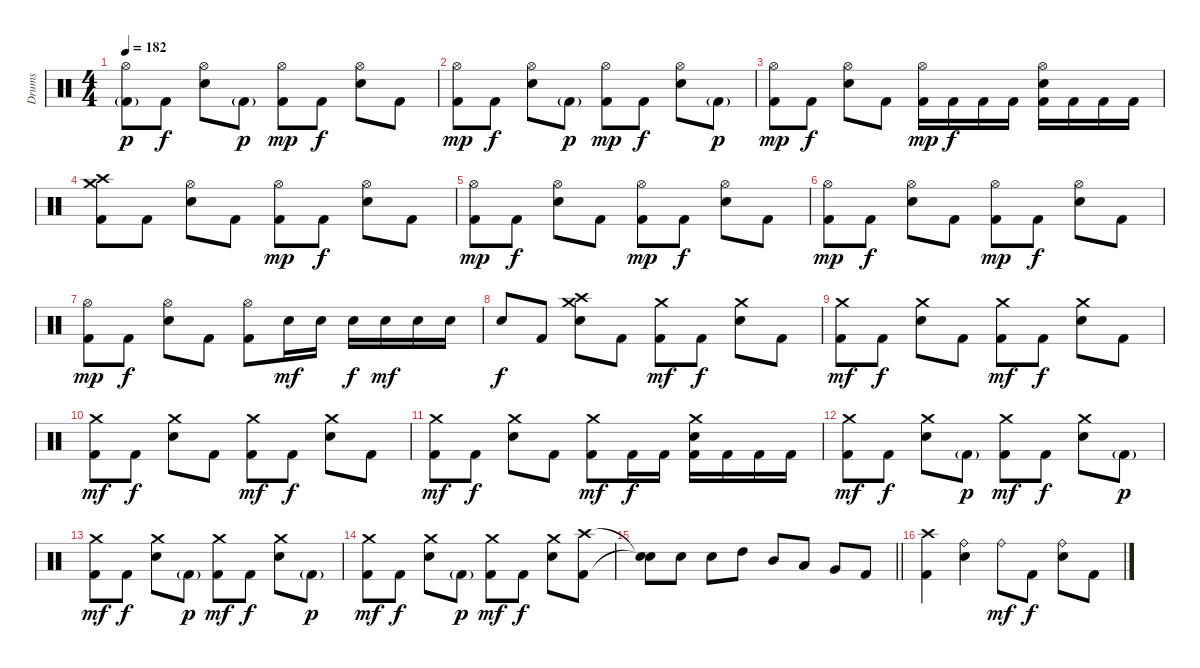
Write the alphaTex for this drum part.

\track ("Drums" "Drums") {instrument percussion}
\staff {score}
\articulation defaults
\ts (4 4)
\tempo 182
\clef neutral
\ks c
("Hi-Hat (open)" "Kick (hit) 2"{g}).8{dy p} "Kick (hit) 2".8{dy f} ("Hi-Hat (open)" "Electric Snare (hit)").8 "Kick (hit) 2"{g}.8{dy p} ("Hi-Hat (open)" "Kick (hit) 2").8{dy mp} "Kick (hit) 2".8{dy f} ("Hi-Hat (open)" "Electric Snare (hit)").8 "Kick (hit) 2".8 |
("Hi-Hat (open)" "Kick (hit) 2").8{dy mp} "Kick (hit) 2".8{dy f} ("Hi-Hat (open)" "Electric Snare (hit)").8 "Kick (hit) 2"{g}.8{dy p} ("Hi-Hat (open)" "Kick (hit) 2").8{dy mp} "Kick (hit) 2".8{dy f} ("Hi-Hat (open)" "Electric Snare (hit)").8 "Kick (hit) 2"{g}.8{dy p} |
("Hi-Hat (open)" "Kick (hit) 2").8{dy mp} "Kick (hit) 2".8{dy f} ("Hi-Hat (open)" "Electric Snare (hit)").8 "Kick (hit) 2".8 ("Hi-Hat (open)" "Kick (hit) 2").16{dy mp} "Kick (hit) 2".16{dy f} "Kick (hit) 2".16 "Kick (hit) 2".16 ("Hi-Hat (open)" "Electric Snare (hit)" "Kick (hit) 2").16 "Kick (hit) 2".16 "Kick (hit) 2".16 "Kick (hit) 2".16 |
("Crash high (hit)" "Crash medium (hit)" "Kick (hit) 2").8 "Kick (hit) 2".8 ("Hi-Hat (open)" "Electric Snare (hit)").8 "Kick (hit) 2".8 ("Hi-Hat (open)" "Kick (hit) 2").8{dy mp} "Kick (hit) 2".8{dy f} ("Hi-Hat (open)" "Electric Snare (hit)").8 "Kick (hit) 2".8 |
("Hi-Hat (open)" "Kick (hit) 2").8{dy mp} "Kick (hit) 2".8{dy f} ("Hi-Hat (open)" "Electric Snare (hit)").8 "Kick (hit) 2".8 ("Hi-Hat (open)" "Kick (hit) 2").8{dy mp} "Kick (hit) 2".8{dy f} ("Hi-Hat (open)" "Electric Snare (hit)").8 "Kick (hit) 2".8 |
("Hi-Hat (open)" "Kick (hit) 2").8{dy mp} "Kick (hit) 2".8{dy f} ("Hi-Hat (open)" "Electric Snare (hit)").8 "Kick (hit) 2".8 ("Hi-Hat (open)" "Kick (hit) 2").8{dy mp} "Kick (hit) 2".8{dy f} ("Hi-Hat (open)" "Electric Snare (hit)").8 "Kick (hit) 2".8 |
("Hi-Hat (open)" "Kick (hit) 2").8{dy mp} "Kick (hit) 2".8{dy f} ("Hi-Hat (open)" "Electric Snare (hit)").8 "Kick (hit) 2".8 ("Hi-Hat (open)" "Kick (hit) 2").8 "Electric Snare (hit)".16{dy mf} "Electric Snare (hit)".16 "Electric Snare (hit)".16{dy f} "Electric Snare (hit)".16{dy mf} "Electric Snare (hit)".16 "Electric Snare (hit)".16 |
"Electric Snare (hit)".8{dy f} "Kick (hit) 2".8 ("Crash medium (hit)" "Crash high (hit)" "Electric Snare (hit)").8 "Kick (hit) 2".8 ("Crash medium (hit)" "Kick (hit) 2").8{dy mf} "Kick (hit) 2".8{dy f} ("Crash medium (hit)" "Electric Snare (hit)").8 "Kick (hit) 2".8 |
("Crash medium (hit)" "Kick (hit) 2").8{dy mf} "Kick (hit) 2".8{dy f} ("Crash medium (hit)" "Electric Snare (hit)").8 "Kick (hit) 2".8 ("Crash medium (hit)" "Kick (hit) 2").8{dy mf} "Kick (hit) 2".8{dy f} ("Crash medium (hit)" "Electric Snare (hit)").8 "Kick (hit) 2".8 |
("Crash medium (hit)" "Kick (hit) 2").8{dy mf} "Kick (hit) 2".8{dy f} ("Crash medium (hit)" "Electric Snare (hit)").8 "Kick (hit) 2".8 ("Crash medium (hit)" "Kick (hit) 2").8{dy mf} "Kick (hit) 2".8{dy f} ("Crash medium (hit)" "Electric Snare (hit)").8 "Kick (hit) 2".8 |
("Crash medium (hit)" "Kick (hit) 2").8{dy mf} "Kick (hit) 2".8{dy f} ("Crash medium (hit)" "Electric Snare (hit)").8 "Kick (hit) 2".8 ("Crash medium (hit)" "Kick (hit) 2").8{dy mf} "Kick (hit) 2".16{dy f} "Kick (hit) 2".16 ("Crash medium (hit)" "Electric Snare (hit)" "Kick (hit) 2").16 "Kick (hit) 2".16 "Kick (hit) 2".16 "Kick (hit) 2".16 |
("Crash medium (hit)" "Kick (hit) 2").8{dy mf} "Kick (hit) 2".8{dy f} ("Crash medium (hit)" "Electric Snare (hit)").8 "Kick (hit) 2"{g}.8{dy p} ("Crash medium (hit)" "Kick (hit) 2").8{dy mf} "Kick (hit) 2".8{dy f} ("Crash medium (hit)" "Electric Snare (hit)").8 "Kick (hit) 2"{g}.8{dy p} |
("Crash medium (hit)" "Kick (hit) 2").8{dy mf} "Kick (hit) 2".8{dy f} ("Crash medium (hit)" "Electric Snare (hit)").8 "Kick (hit) 2"{g}.8{dy p} ("Crash medium (hit)" "Kick (hit) 2").8{dy mf} "Kick (hit) 2".8{dy f} ("Crash medium (hit)" "Electric Snare (hit)").8 "Kick (hit) 2"{g}.8{dy p} |
("Crash medium (hit)" "Kick (hit) 2").8{dy mf} "Kick (hit) 2".8{dy f} ("Crash medium (hit)" "Electric Snare (hit)").8 "Kick (hit) 2"{g}.8{dy p} ("Crash medium (hit)" "Kick (hit) 2").8{dy mf} "Kick (hit) 2".8{dy f} ("Crash medium (hit)" "Electric Snare (hit)").8 ("Crash high (hit)" "Kick (hit) 2").8 |
\barLineRight lightlight
("Snare (hit)"{t} "Snare (hit)"{t}).8 "Electric Snare (hit)".8 "Electric Snare (hit)".8 "High Tom (hit)".8 "Mid Tom (hit)".8 "Low Tom (hit)".8 "Very Low Tom (hit)".8 "Kick (hit) 2".8 |
("Crash high (hit)" "Kick (hit) 2").4 ("Ride (bell)" "Electric Snare (hit)").4 "Ride (bell)".8{dy mf} "Kick (hit) 2".8{dy f} ("Ride (bell)" "Electric Snare (hit)").8 "Kick (hit) 2".8
